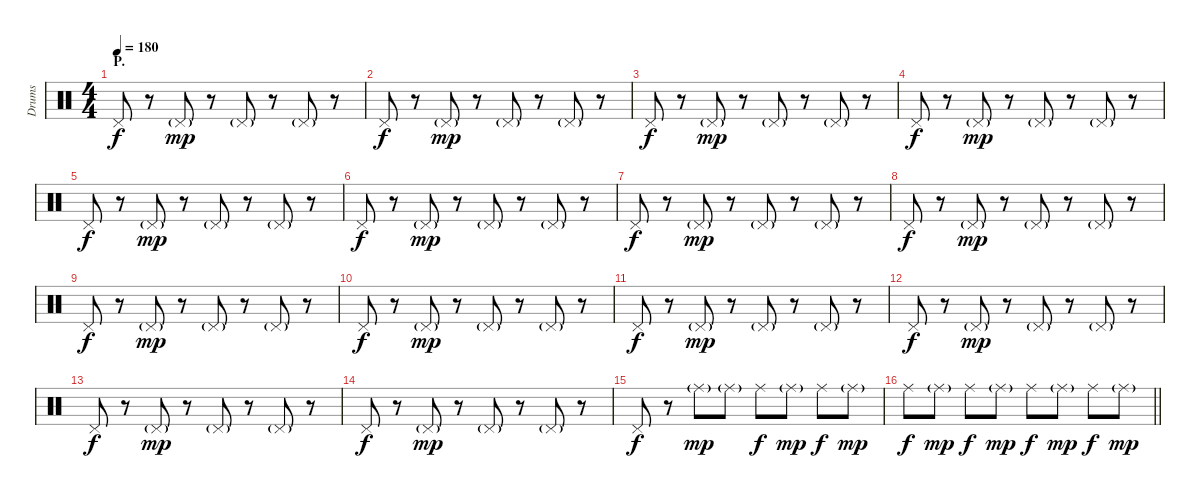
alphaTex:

\track ("Drums" "Drums") {instrument percussion}
\staff {score}
\articulation defaults
\ts (4 4)
\section ("" "P.")
\tempo 180
\clef neutral
\ks c "Pedal Hi-Hat (hit)".8{dy f}
r.8 "Pedal Hi-Hat (hit)"{g}.8{dy mp} r.8 "Pedal Hi-Hat (hit)"{g}.8 r.8 "Pedal Hi-Hat (hit)"{g}.8 r.8 |
"Pedal Hi-Hat (hit)".8{dy f} r.8 "Pedal Hi-Hat (hit)"{g}.8{dy mp} r.8 "Pedal Hi-Hat (hit)"{g}.8 r.8 "Pedal Hi-Hat (hit)"{g}.8 r.8 |
"Pedal Hi-Hat (hit)".8{dy f} r.8 "Pedal Hi-Hat (hit)"{g}.8{dy mp} r.8 "Pedal Hi-Hat (hit)"{g}.8 r.8 "Pedal Hi-Hat (hit)"{g}.8 r.8 |
"Pedal Hi-Hat (hit)".8{dy f} r.8 "Pedal Hi-Hat (hit)"{g}.8{dy mp} r.8 "Pedal Hi-Hat (hit)"{g}.8 r.8 "Pedal Hi-Hat (hit)"{g}.8 r.8 |
"Pedal Hi-Hat (hit)".8{dy f} r.8 "Pedal Hi-Hat (hit)"{g}.8{dy mp} r.8 "Pedal Hi-Hat (hit)"{g}.8 r.8 "Pedal Hi-Hat (hit)"{g}.8 r.8 |
"Pedal Hi-Hat (hit)".8{dy f} r.8 "Pedal Hi-Hat (hit)"{g}.8{dy mp} r.8 "Pedal Hi-Hat (hit)"{g}.8 r.8 "Pedal Hi-Hat (hit)"{g}.8 r.8 |
"Pedal Hi-Hat (hit)".8{dy f} r.8 "Pedal Hi-Hat (hit)"{g}.8{dy mp} r.8 "Pedal Hi-Hat (hit)"{g}.8 r.8 "Pedal Hi-Hat (hit)"{g}.8 r.8 |
"Pedal Hi-Hat (hit)".8{dy f} r.8 "Pedal Hi-Hat (hit)"{g}.8{dy mp} r.8 "Pedal Hi-Hat (hit)"{g}.8 r.8 "Pedal Hi-Hat (hit)"{g}.8 r.8 |
"Pedal Hi-Hat (hit)".8{dy f} r.8 "Pedal Hi-Hat (hit)"{g}.8{dy mp} r.8 "Pedal Hi-Hat (hit)"{g}.8 r.8 "Pedal Hi-Hat (hit)"{g}.8 r.8 |
"Pedal Hi-Hat (hit)".8{dy f} r.8 "Pedal Hi-Hat (hit)"{g}.8{dy mp} r.8 "Pedal Hi-Hat (hit)"{g}.8 r.8 "Pedal Hi-Hat (hit)"{g}.8 r.8 |
"Pedal Hi-Hat (hit)".8{dy f} r.8 "Pedal Hi-Hat (hit)"{g}.8{dy mp} r.8 "Pedal Hi-Hat (hit)"{g}.8 r.8 "Pedal Hi-Hat (hit)"{g}.8 r.8 |
"Pedal Hi-Hat (hit)".8{dy f} r.8 "Pedal Hi-Hat (hit)"{g}.8{dy mp} r.8 "Pedal Hi-Hat (hit)"{g}.8 r.8 "Pedal Hi-Hat (hit)"{g}.8 r.8 |
"Pedal Hi-Hat (hit)".8{dy f} r.8 "Pedal Hi-Hat (hit)"{g}.8{dy mp} r.8 "Pedal Hi-Hat (hit)"{g}.8 r.8 "Pedal Hi-Hat (hit)"{g}.8 r.8 |
"Pedal Hi-Hat (hit)".8{dy f} r.8 "Pedal Hi-Hat (hit)"{g}.8{dy mp} r.8 "Pedal Hi-Hat (hit)"{g}.8 r.8 "Pedal Hi-Hat (hit)"{g}.8 r.8 |
"Pedal Hi-Hat (hit)".8{dy f} r.8 "Ride (middle)"{g}.8{dy mp} "Ride (middle)"{g}.8 "Ride (middle)".8{dy f} "Ride (middle)"{g}.8{dy mp} "Ride (middle)".8{dy f} "Ride (middle)"{g}.8{dy mp} |
\barLineRight lightlight "Ride (middle)".8{dy f} "Ride (middle)"{g}.8{dy mp} "Ride (middle)".8{dy f} "Ride (middle)"{g}.8{dy mp} "Ride (middle)".8{dy f} "Ride (middle)"{g}.8{dy mp} "Ride (middle)".8{dy f} "Ride (middle)"{g}.8{dy mp}
